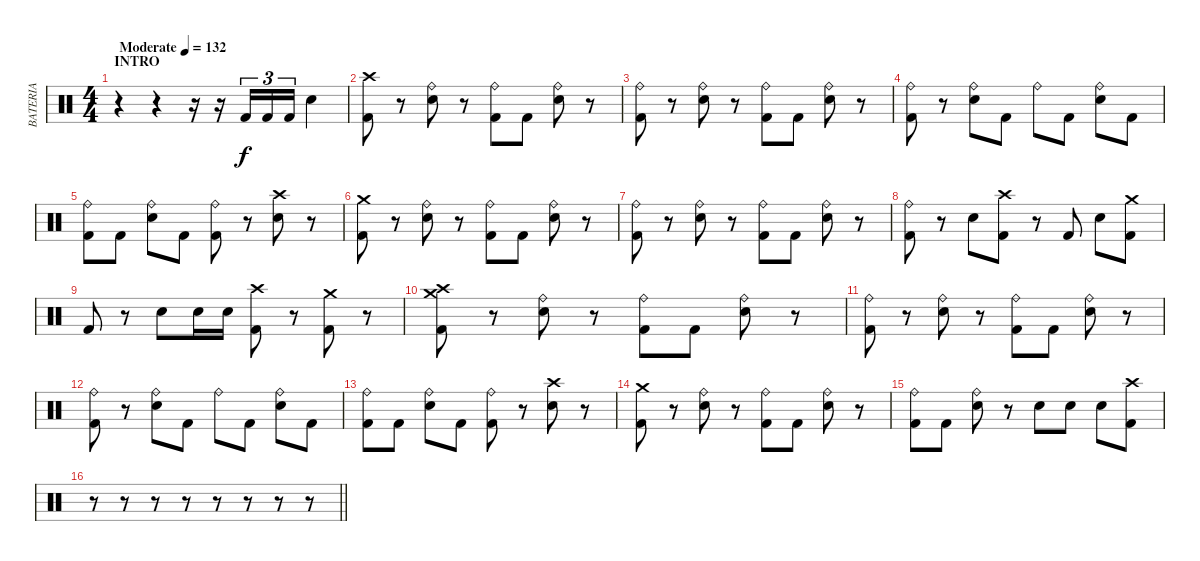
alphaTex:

\track ("BATERIA" "BATERIA") {instrument percussion}
\staff {score}
\articulation defaults
\ts (4 4)
\section ("" "INTRO")
\tempo (132 "Moderate")
\clef neutral
\ks c
r.4{dy f} r.4 r.16 r.16 "Kick (hit) 2".16{tu (3 2)} "Kick (hit) 2".16{tu (3 2)} "Kick (hit) 2".16{tu (3 2)} "Electric Snare (hit)".4 |
("Kick (hit) 2" "Crash high (hit)").8 r.8 ("Ride (bell)" "Electric Snare (hit)").8 r.8 ("Kick (hit) 2" "Ride (bell)").8 "Kick (hit) 2".8 ("Ride (bell)" "Electric Snare (hit)").8 r.8 |
("Kick (hit) 2" "Ride (bell)").8 r.8 ("Ride (bell)" "Electric Snare (hit)").8 r.8 ("Kick (hit) 2" "Ride (bell)").8 "Kick (hit) 2".8 ("Ride (bell)" "Electric Snare (hit)").8 r.8 |
("Kick (hit) 2" "Ride (bell)").8 r.8 ("Ride (bell)" "Electric Snare (hit)").8 "Kick (hit) 2".8 "Ride (bell)".8 "Kick (hit) 2".8 ("Ride (bell)" "Electric Snare (hit)").8 "Kick (hit) 2".8 |
("Kick (hit) 2" "Ride (bell)").8 "Kick (hit) 2".8 ("Ride (bell)" "Electric Snare (hit)").8 "Kick (hit) 2".8 ("Kick (hit) 2" "Ride (bell)").8 r.8 ("Crash high (hit)" "Electric Snare (hit)").8 r.8 |
("Kick (hit) 2" "Crash medium (hit)").8 r.8 ("Ride (bell)" "Electric Snare (hit)").8 r.8 ("Kick (hit) 2" "Ride (bell)").8 "Kick (hit) 2".8 ("Ride (bell)" "Electric Snare (hit)").8 r.8 |
("Kick (hit) 2" "Ride (bell)").8 r.8 ("Ride (bell)" "Electric Snare (hit)").8 r.8 ("Kick (hit) 2" "Ride (bell)").8 "Kick (hit) 2".8 ("Ride (bell)" "Electric Snare (hit)").8 r.8 |
("Kick (hit) 2" "Ride (bell)").8 r.8 "Electric Snare (hit)".8 ("Kick (hit) 2" "Crash high (hit)").8 r.8 "Kick (hit) 2".8 "Electric Snare (hit)".8 ("Kick (hit) 2" "Crash medium (hit)").8 |
"Kick (hit) 2".8 r.8 "Electric Snare (hit)".8 "Electric Snare (hit)".16 "Electric Snare (hit)".16 ("Kick (hit) 2" "Crash high (hit)").8 r.8 ("Kick (hit) 2" "Crash medium (hit)").8 r.8 |
("Kick (hit) 2" "Crash high (hit)" "Crash medium (hit)").8 r.8 ("Ride (bell)" "Electric Snare (hit)").8 r.8 ("Kick (hit) 2" "Ride (bell)").8 "Kick (hit) 2".8 ("Ride (bell)" "Electric Snare (hit)").8 r.8 |
("Kick (hit) 2" "Ride (bell)").8 r.8 ("Ride (bell)" "Electric Snare (hit)").8 r.8 ("Kick (hit) 2" "Ride (bell)").8 "Kick (hit) 2".8 ("Ride (bell)" "Electric Snare (hit)").8 r.8 |
("Kick (hit) 2" "Ride (bell)").8 r.8 ("Ride (bell)" "Electric Snare (hit)").8 "Kick (hit) 2".8 "Ride (bell)".8 "Kick (hit) 2".8 ("Ride (bell)" "Electric Snare (hit)").8 "Kick (hit) 2".8 |
("Kick (hit) 2" "Ride (bell)").8 "Kick (hit) 2".8 ("Ride (bell)" "Electric Snare (hit)").8 "Kick (hit) 2".8 ("Kick (hit) 2" "Ride (bell)").8 r.8 ("Crash high (hit)" "Electric Snare (hit)").8 r.8 |
("Kick (hit) 2" "Crash medium (hit)").8 r.8 ("Ride (bell)" "Electric Snare (hit)").8 r.8 ("Kick (hit) 2" "Ride (bell)").8 "Kick (hit) 2".8 ("Ride (bell)" "Electric Snare (hit)").8 r.8 |
("Kick (hit) 2" "Ride (bell)").8 "Kick (hit) 2".8 ("Ride (bell)" "Electric Snare (hit)").8 r.8 "Electric Snare (hit)".8 "Electric Snare (hit)".8 "Electric Snare (hit)".8 ("Kick (hit) 2" "Crash high (hit)").8 |
\barLineRight lightlight
r.8 r.8 r.8 r.8 r.8 r.8 r.8 r.8
